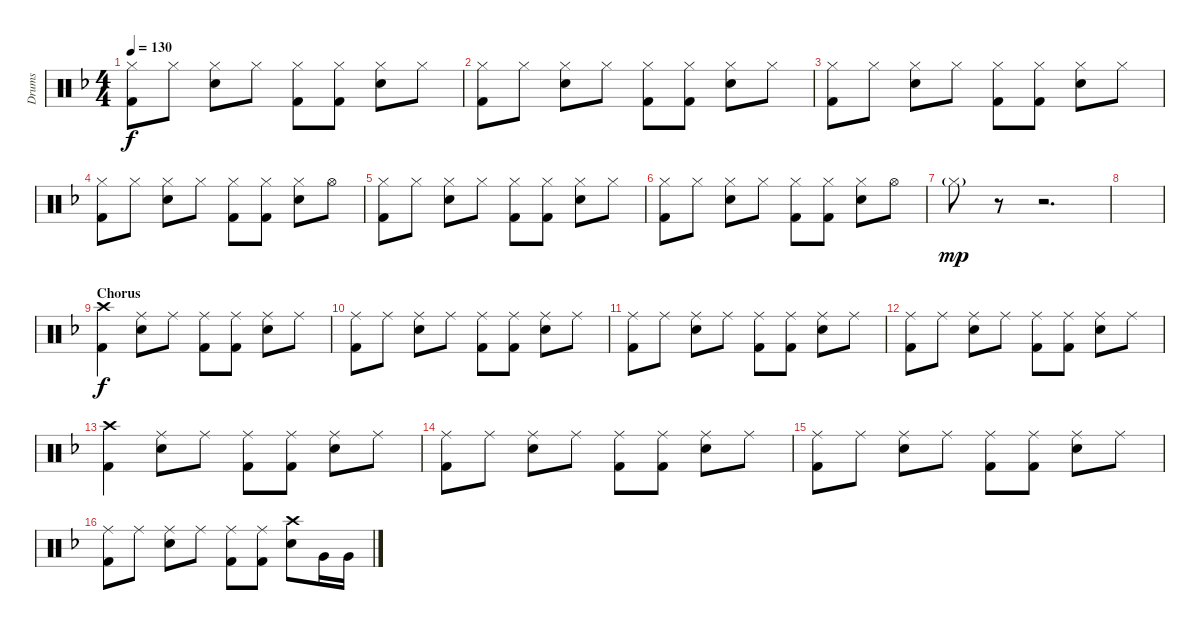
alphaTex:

\track ("Drums" "Drums") {instrument percussion}
\staff {score}
\articulation defaults
\ts (4 4)
\tempo 130
\clef neutral
\ks f
("Hi-Hat (closed)" "Kick (hit) 2").8{dy f} "Hi-Hat (closed)".8 ("Hi-Hat (closed)" "Snare (hit) 2").8 "Hi-Hat (closed)".8 ("Hi-Hat (closed)" "Kick (hit) 2").8 ("Hi-Hat (closed)" "Kick (hit) 2").8 ("Hi-Hat (closed)" "Snare (hit) 2").8 "Hi-Hat (closed)".8 |
("Hi-Hat (closed)" "Kick (hit) 2").8 "Hi-Hat (closed)".8 ("Hi-Hat (closed)" "Snare (hit) 2").8 "Hi-Hat (closed)".8 ("Hi-Hat (closed)" "Kick (hit) 2").8 ("Hi-Hat (closed)" "Kick (hit) 2").8 ("Hi-Hat (closed)" "Snare (hit) 2").8 "Hi-Hat (closed)".8 |
("Hi-Hat (closed)" "Kick (hit) 2").8 "Hi-Hat (closed)".8 ("Hi-Hat (closed)" "Snare (hit) 2").8 "Hi-Hat (closed)".8 ("Hi-Hat (closed)" "Kick (hit) 2").8 ("Hi-Hat (closed)" "Kick (hit) 2").8 ("Hi-Hat (closed)" "Snare (hit) 2").8 "Hi-Hat (closed)".8 |
("Hi-Hat (closed)" "Kick (hit) 2").8 "Hi-Hat (closed)".8 ("Hi-Hat (closed)" "Snare (hit) 2").8 "Hi-Hat (closed)".8 ("Hi-Hat (closed)" "Kick (hit) 2").8 ("Hi-Hat (closed)" "Kick (hit) 2").8 ("Hi-Hat (closed)" "Snare (hit) 2").8 "Hi-Hat (open)".8 |
("Hi-Hat (closed)" "Kick (hit) 2").8 "Hi-Hat (closed)".8 ("Hi-Hat (closed)" "Snare (hit) 2").8 "Hi-Hat (closed)".8 ("Hi-Hat (closed)" "Kick (hit) 2").8 ("Hi-Hat (closed)" "Kick (hit) 2").8 ("Hi-Hat (closed)" "Snare (hit) 2").8 "Hi-Hat (closed)".8 |
("Hi-Hat (closed)" "Kick (hit) 2").8 "Hi-Hat (closed)".8 ("Hi-Hat (closed)" "Snare (hit) 2").8 "Hi-Hat (closed)".8 ("Hi-Hat (closed)" "Kick (hit) 2").8 ("Hi-Hat (closed)" "Kick (hit) 2").8 ("Hi-Hat (closed)" "Snare (hit) 2").8 "Hi-Hat (open)".8 |
"Hi-Hat (closed)"{g}.8{dy mp} r.8 r.2{d} |
|
\section ("" "Chorus")
("Crash high (hit)" "Kick (hit) 2").4{dy f} ("Ride (middle)" "Snare (hit) 2").8 "Ride (middle)".8 ("Ride (middle)" "Kick (hit) 2").8 ("Ride (middle)" "Kick (hit) 2").8 ("Ride (middle)" "Snare (hit) 2").8 "Ride (middle)".8 |
("Ride (middle)" "Kick (hit) 2").8 "Ride (middle)".8 ("Ride (middle)" "Snare (hit) 2").8 "Ride (middle)".8 ("Ride (middle)" "Kick (hit) 2").8 ("Ride (middle)" "Kick (hit) 2").8 ("Ride (middle)" "Snare (hit) 2").8 "Ride (middle)".8 |
("Ride (middle)" "Kick (hit) 2").8 "Ride (middle)".8 ("Ride (middle)" "Snare (hit) 2").8 "Ride (middle)".8 ("Ride (middle)" "Kick (hit) 2").8 ("Ride (middle)" "Kick (hit) 2").8 ("Ride (middle)" "Snare (hit) 2").8 "Ride (middle)".8 |
("Ride (middle)" "Kick (hit) 2").8 "Ride (middle)".8 ("Ride (middle)" "Snare (hit) 2").8 "Ride (middle)".8 ("Ride (middle)" "Kick (hit) 2").8 ("Ride (middle)" "Kick (hit) 2").8 ("Ride (middle)" "Snare (hit) 2").8 "Ride (middle)".8 |
("Crash high (hit)" "Kick (hit) 2").4 ("Ride (middle)" "Snare (hit) 2").8 "Ride (middle)".8 ("Ride (middle)" "Kick (hit) 2").8 ("Ride (middle)" "Kick (hit) 2").8 ("Ride (middle)" "Snare (hit) 2").8 "Ride (middle)".8 |
("Ride (middle)" "Kick (hit) 2").8 "Ride (middle)".8 ("Ride (middle)" "Snare (hit) 2").8 "Ride (middle)".8 ("Ride (middle)" "Kick (hit) 2").8 ("Ride (middle)" "Kick (hit) 2").8 ("Ride (middle)" "Snare (hit) 2").8 "Ride (middle)".8 |
("Ride (middle)" "Kick (hit) 2").8 "Ride (middle)".8 ("Ride (middle)" "Snare (hit) 2").8 "Ride (middle)".8 ("Ride (middle)" "Kick (hit) 2").8 ("Ride (middle)" "Kick (hit) 2").8 ("Ride (middle)" "Snare (hit) 2").8 "Ride (middle)".8 |
("Ride (middle)" "Kick (hit) 2").8 "Ride (middle)".8 ("Ride (middle)" "Snare (hit) 2").8 "Ride (middle)".8 ("Ride (middle)" "Kick (hit) 2").8 ("Ride (middle)" "Kick (hit) 2").8 ("Crash high (hit)" "Snare (hit) 2").8 "Very Low Tom (hit)".16 "Very Low Tom (hit)".16
